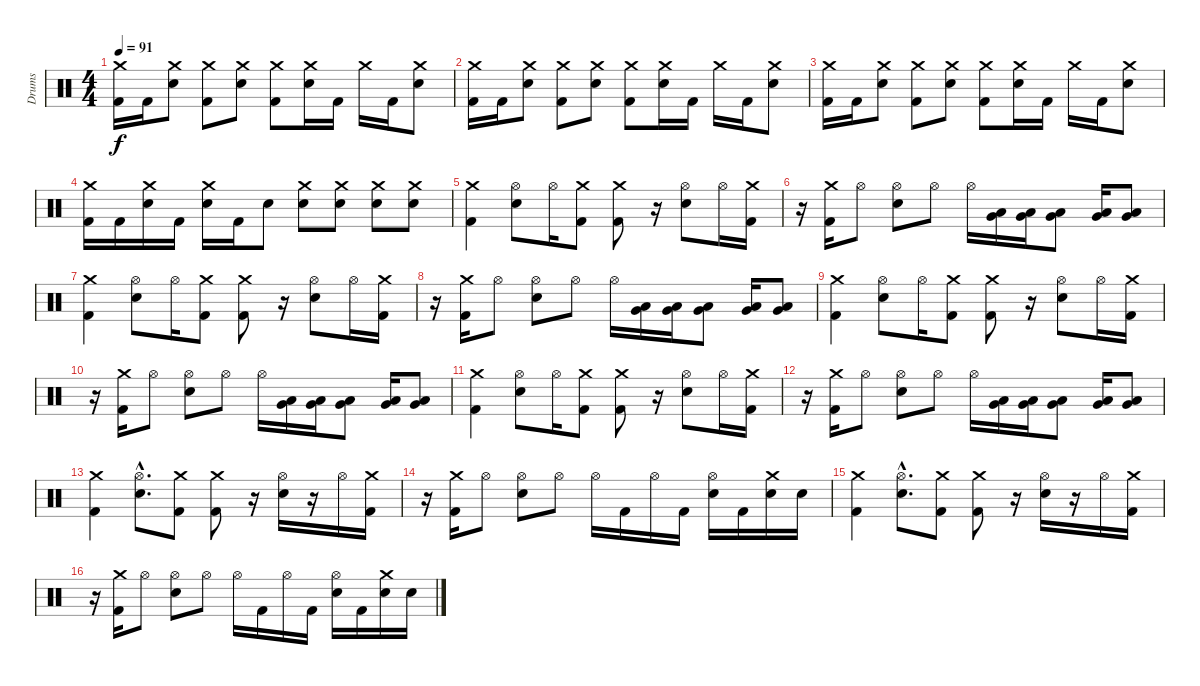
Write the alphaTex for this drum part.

\track ("Drums" "Drums") {instrument percussion}
\staff {score}
\articulation defaults
\ts (4 4)
\tempo 91
\clef neutral
\ks c
("Crash medium (hit)" "Kick (hit) 2").16{dy f} "Kick (hit) 2".16 ("Crash medium (hit)" "Snare (hit) 2").8 ("Crash medium (hit)" "Kick (hit) 2").8 ("Crash medium (hit)" "Snare (hit) 2").8 ("Crash medium (hit)" "Kick (hit) 2").8 ("Crash medium (hit)" "Snare (hit) 2").16 "Kick (hit) 2".16 "Crash medium (hit)".16 "Kick (hit) 2".16 ("Crash medium (hit)" "Snare (hit) 2").8 |
("Crash medium (hit)" "Kick (hit) 2").16 "Kick (hit) 2".16 ("Crash medium (hit)" "Snare (hit) 2").8 ("Crash medium (hit)" "Kick (hit) 2").8 ("Crash medium (hit)" "Snare (hit) 2").8 ("Crash medium (hit)" "Kick (hit) 2").8 ("Crash medium (hit)" "Snare (hit) 2").16 "Kick (hit) 2".16 "Crash medium (hit)".16 "Kick (hit) 2".16 ("Crash medium (hit)" "Snare (hit) 2").8 |
("Crash medium (hit)" "Kick (hit) 2").16 "Kick (hit) 2".16 ("Crash medium (hit)" "Snare (hit) 2").8 ("Crash medium (hit)" "Kick (hit) 2").8 ("Crash medium (hit)" "Snare (hit) 2").8 ("Crash medium (hit)" "Kick (hit) 2").8 ("Crash medium (hit)" "Snare (hit) 2").16 "Kick (hit) 2".16 "Crash medium (hit)".16 "Kick (hit) 2".16 ("Crash medium (hit)" "Snare (hit) 2").8 |
("Crash medium (hit)" "Kick (hit) 2").16 "Kick (hit) 2".16 ("Crash medium (hit)" "Snare (hit) 2").16 "Kick (hit) 2".16 ("Crash medium (hit)" "Snare (hit) 2").16 "Kick (hit) 2".16 "Snare (hit) 2".8 ("Crash medium (hit)" "Snare (hit) 2").8 ("Crash medium (hit)" "Snare (hit) 2").8 ("Crash medium (hit)" "Snare (hit) 2").8 ("Crash medium (hit)" "Snare (hit) 2").8 |
("Crash medium (hit)" "Kick (hit) 2").4 ("Hi-Hat (open)" "Snare (hit) 2").8 "Hi-Hat (open)".16 ("Crash medium (hit)" "Kick (hit) 2").8 ("Crash medium (hit)" "Kick (hit) 2").8 r.16 ("Hi-Hat (open)" "Snare (hit) 2").8 "Hi-Hat (open)".16 ("Crash medium (hit)" "Kick (hit) 2").16 |
r.16 ("Crash medium (hit)" "Kick (hit) 2").16 "Hi-Hat (open)".8 ("Hi-Hat (open)" "Snare (hit) 2").8 "Hi-Hat (open)".8 "Hi-Hat (open)".16 ("Low Tom (hit)" "Very Low Tom (hit)").16 ("Low Tom (hit)" "Very Low Tom (hit)").16 ("Low Tom (hit)" "Very Low Tom (hit)").8 ("Low Tom (hit)" "Very Low Tom (hit)").16 ("Low Tom (hit)" "Very Low Tom (hit)").8 |
("Crash medium (hit)" "Kick (hit) 2").4 ("Hi-Hat (open)" "Snare (hit) 2").8 "Hi-Hat (open)".16 ("Crash medium (hit)" "Kick (hit) 2").8 ("Crash medium (hit)" "Kick (hit) 2").8 r.16 ("Hi-Hat (open)" "Snare (hit) 2").8 "Hi-Hat (open)".16 ("Crash medium (hit)" "Kick (hit) 2").16 |
r.16 ("Crash medium (hit)" "Kick (hit) 2").16 "Hi-Hat (open)".8 ("Hi-Hat (open)" "Snare (hit) 2").8 "Hi-Hat (open)".8 "Hi-Hat (open)".16 ("Low Tom (hit)" "Very Low Tom (hit)").16 ("Low Tom (hit)" "Very Low Tom (hit)").16 ("Low Tom (hit)" "Very Low Tom (hit)").8 ("Low Tom (hit)" "Very Low Tom (hit)").16 ("Low Tom (hit)" "Very Low Tom (hit)").8 |
("Crash medium (hit)" "Kick (hit) 2").4 ("Hi-Hat (open)" "Snare (hit) 2").8 "Hi-Hat (open)".16 ("Crash medium (hit)" "Kick (hit) 2").8 ("Crash medium (hit)" "Kick (hit) 2").8 r.16 ("Hi-Hat (open)" "Snare (hit) 2").8 "Hi-Hat (open)".16 ("Crash medium (hit)" "Kick (hit) 2").16 |
r.16 ("Crash medium (hit)" "Kick (hit) 2").16 "Hi-Hat (open)".8 ("Hi-Hat (open)" "Snare (hit) 2").8 "Hi-Hat (open)".8 "Hi-Hat (open)".16 ("Low Tom (hit)" "Very Low Tom (hit)").16 ("Low Tom (hit)" "Very Low Tom (hit)").16 ("Low Tom (hit)" "Very Low Tom (hit)").8 ("Low Tom (hit)" "Very Low Tom (hit)").16 ("Low Tom (hit)" "Very Low Tom (hit)").8 |
("Crash medium (hit)" "Kick (hit) 2").4 ("Hi-Hat (open)" "Snare (hit) 2").8 "Hi-Hat (open)".16 ("Crash medium (hit)" "Kick (hit) 2").8 ("Crash medium (hit)" "Kick (hit) 2").8 r.16 ("Hi-Hat (open)" "Snare (hit) 2").8 "Hi-Hat (open)".16 ("Crash medium (hit)" "Kick (hit) 2").16 |
r.16 ("Crash medium (hit)" "Kick (hit) 2").16 "Hi-Hat (open)".8 ("Hi-Hat (open)" "Snare (hit) 2").8 "Hi-Hat (open)".8 "Hi-Hat (open)".16 ("Low Tom (hit)" "Very Low Tom (hit)").16 ("Low Tom (hit)" "Very Low Tom (hit)").16 ("Low Tom (hit)" "Very Low Tom (hit)").8 ("Low Tom (hit)" "Very Low Tom (hit)").16 ("Low Tom (hit)" "Very Low Tom (hit)").8 |
("Crash medium (hit)" "Kick (hit) 2").4 ("Hi-Hat (open)"{hac} "Snare (hit) 2"{hac}).8{d} ("Crash medium (hit)" "Kick (hit) 2").8 ("Crash medium (hit)" "Kick (hit) 2").8 r.16 ("Hi-Hat (open)" "Snare (hit) 2").16 r.16 "Hi-Hat (open)".16 ("Crash medium (hit)" "Kick (hit) 2").16 |
r.16 ("Crash medium (hit)" "Kick (hit) 2").16 "Hi-Hat (open)".8 ("Hi-Hat (open)" "Snare (hit) 2").8 "Hi-Hat (open)".8 "Hi-Hat (open)".16 "Kick (hit) 2".16 "Hi-Hat (open)".16 "Kick (hit) 2".16 ("Hi-Hat (open)" "Snare (hit) 2").16 "Kick (hit) 2".16 ("Crash medium (hit)" "Snare (hit) 2").16 "Snare (hit) 2".16 |
("Crash medium (hit)" "Kick (hit) 2").4 ("Hi-Hat (open)"{hac} "Snare (hit) 2"{hac}).8{d} ("Crash medium (hit)" "Kick (hit) 2").8 ("Crash medium (hit)" "Kick (hit) 2").8 r.16 ("Hi-Hat (open)" "Snare (hit) 2").16 r.16 "Hi-Hat (open)".16 ("Crash medium (hit)" "Kick (hit) 2").16 |
r.16 ("Crash medium (hit)" "Kick (hit) 2").16 "Hi-Hat (open)".8 ("Hi-Hat (open)" "Snare (hit) 2").8 "Hi-Hat (open)".8 "Hi-Hat (open)".16 "Kick (hit) 2".16 "Hi-Hat (open)".16 "Kick (hit) 2".16 ("Hi-Hat (open)" "Snare (hit) 2").16 "Kick (hit) 2".16 ("Crash medium (hit)" "Snare (hit) 2").16 "Snare (hit) 2".16
